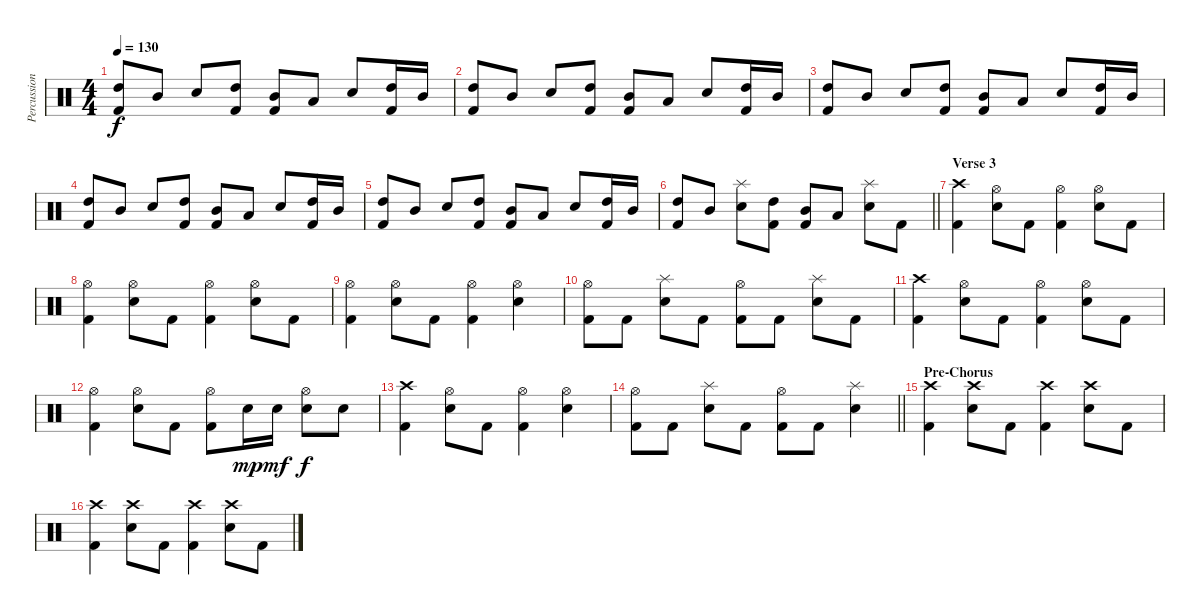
\track ("Percussion" "Percussion") {instrument percussion}
\staff {score}
\articulation defaults
\ts (4 4)
\tempo 130
\clef neutral
\ks c
("High Tom (hit)" "Kick (hit) 2").8{dy f} "Mid Tom (hit)".8 "Electric Snare (hit)".8 ("High Tom (hit)" "Kick (hit) 2").8 ("Mid Tom (hit)" "Kick (hit) 2").8 "Low Tom (hit)".8 "Electric Snare (hit)".8 ("High Tom (hit)" "Kick (hit) 2").16 "Mid Tom (hit)".16 |
("High Tom (hit)" "Kick (hit) 2").8 "Mid Tom (hit)".8 "Electric Snare (hit)".8 ("High Tom (hit)" "Kick (hit) 2").8 ("Mid Tom (hit)" "Kick (hit) 2").8 "Low Tom (hit)".8 "Electric Snare (hit)".8 ("High Tom (hit)" "Kick (hit) 2").16 "Mid Tom (hit)".16 |
("High Tom (hit)" "Kick (hit) 2").8 "Mid Tom (hit)".8 "Electric Snare (hit)".8 ("High Tom (hit)" "Kick (hit) 2").8 ("Mid Tom (hit)" "Kick (hit) 2").8 "Low Tom (hit)".8 "Electric Snare (hit)".8 ("High Tom (hit)" "Kick (hit) 2").16 "Mid Tom (hit)".16 |
("High Tom (hit)" "Kick (hit) 2").8 "Mid Tom (hit)".8 "Electric Snare (hit)".8 ("High Tom (hit)" "Kick (hit) 2").8 ("Mid Tom (hit)" "Kick (hit) 2").8 "Low Tom (hit)".8 "Electric Snare (hit)".8 ("High Tom (hit)" "Kick (hit) 2").16 "Mid Tom (hit)".16 |
("High Tom (hit)" "Kick (hit) 2").8 "Mid Tom (hit)".8 "Electric Snare (hit)".8 ("High Tom (hit)" "Kick (hit) 2").8 ("Mid Tom (hit)" "Kick (hit) 2").8 "Low Tom (hit)".8 "Electric Snare (hit)".8 ("High Tom (hit)" "Kick (hit) 2").16 "Mid Tom (hit)".16 |
\barLineRight lightlight
("High Tom (hit)" "Kick (hit) 2").8 "Mid Tom (hit)".8 ("Splash (hit)" "Electric Snare (hit)").8 ("High Tom (hit)" "Kick (hit) 2").8 ("Mid Tom (hit)" "Kick (hit) 2").8 "Low Tom (hit)".8 ("Splash (hit)" "Electric Snare (hit)").8 "Kick (hit) 2".8 |
\section ("" "Verse 3")
("Crash high (hit)" "Kick (hit) 2").4 ("Hi-Hat (open)" "Electric Snare (hit)").8 "Kick (hit) 2".8 ("Hi-Hat (open)" "Kick (hit) 2").4 ("Hi-Hat (open)" "Electric Snare (hit)").8 "Kick (hit) 2".8 |
("Hi-Hat (open)" "Kick (hit) 2").4 ("Hi-Hat (open)" "Electric Snare (hit)").8 "Kick (hit) 2".8 ("Hi-Hat (open)" "Kick (hit) 2").4 ("Hi-Hat (open)" "Electric Snare (hit)").8 "Kick (hit) 2".8 |
("Hi-Hat (open)" "Kick (hit) 2").4 ("Hi-Hat (open)" "Electric Snare (hit)").8 "Kick (hit) 2".8 ("Hi-Hat (open)" "Kick (hit) 2").4 ("Hi-Hat (open)" "Electric Snare (hit)").4 |
("Hi-Hat (open)" "Kick (hit) 2").8 "Kick (hit) 2".8 ("Splash (hit)" "Electric Snare (hit)").8 "Kick (hit) 2".8 ("Hi-Hat (open)" "Kick (hit) 2").8 "Kick (hit) 2".8 ("Splash (hit)" "Electric Snare (hit)").8 "Kick (hit) 2".8 |
("Crash high (hit)" "Kick (hit) 2").4 ("Hi-Hat (open)" "Electric Snare (hit)").8 "Kick (hit) 2".8 ("Hi-Hat (open)" "Kick (hit) 2").4 ("Hi-Hat (open)" "Electric Snare (hit)").8 "Kick (hit) 2".8 |
("Hi-Hat (open)" "Kick (hit) 2").4 ("Hi-Hat (open)" "Electric Snare (hit)").8 "Kick (hit) 2".8 ("Hi-Hat (open)" "Kick (hit) 2").8 "Electric Snare (hit)".16{dy mp} "Electric Snare (hit)".16{dy mf} ("Hi-Hat (open)" "Electric Snare (hit)").8{dy f} "Electric Snare (hit)".8 |
("Crash high (hit)" "Kick (hit) 2").4 ("Hi-Hat (open)" "Electric Snare (hit)").8 "Kick (hit) 2".8 ("Hi-Hat (open)" "Kick (hit) 2").4 ("Hi-Hat (open)" "Electric Snare (hit)").4 |
\barLineRight lightlight
("Hi-Hat (open)" "Kick (hit) 2").8 "Kick (hit) 2".8 ("Splash (hit)" "Electric Snare (hit)").8 "Kick (hit) 2".8 ("Hi-Hat (open)" "Kick (hit) 2").8 "Kick (hit) 2".8 ("Splash (hit)" "Electric Snare (hit)").4 |
\section ("" "Pre-Chorus")
("Crash high (hit)" "Kick (hit) 2").4 ("Crash high (hit)" "Electric Snare (hit)").8 "Kick (hit) 2".8 ("Crash high (hit)" "Kick (hit) 2").4 ("Crash high (hit)" "Electric Snare (hit)").8 "Kick (hit) 2".8 |
("Crash high (hit)" "Kick (hit) 2").4 ("Crash high (hit)" "Electric Snare (hit)").8 "Kick (hit) 2".8 ("Crash high (hit)" "Kick (hit) 2").4 ("Crash high (hit)" "Electric Snare (hit)").8 "Kick (hit) 2".8
